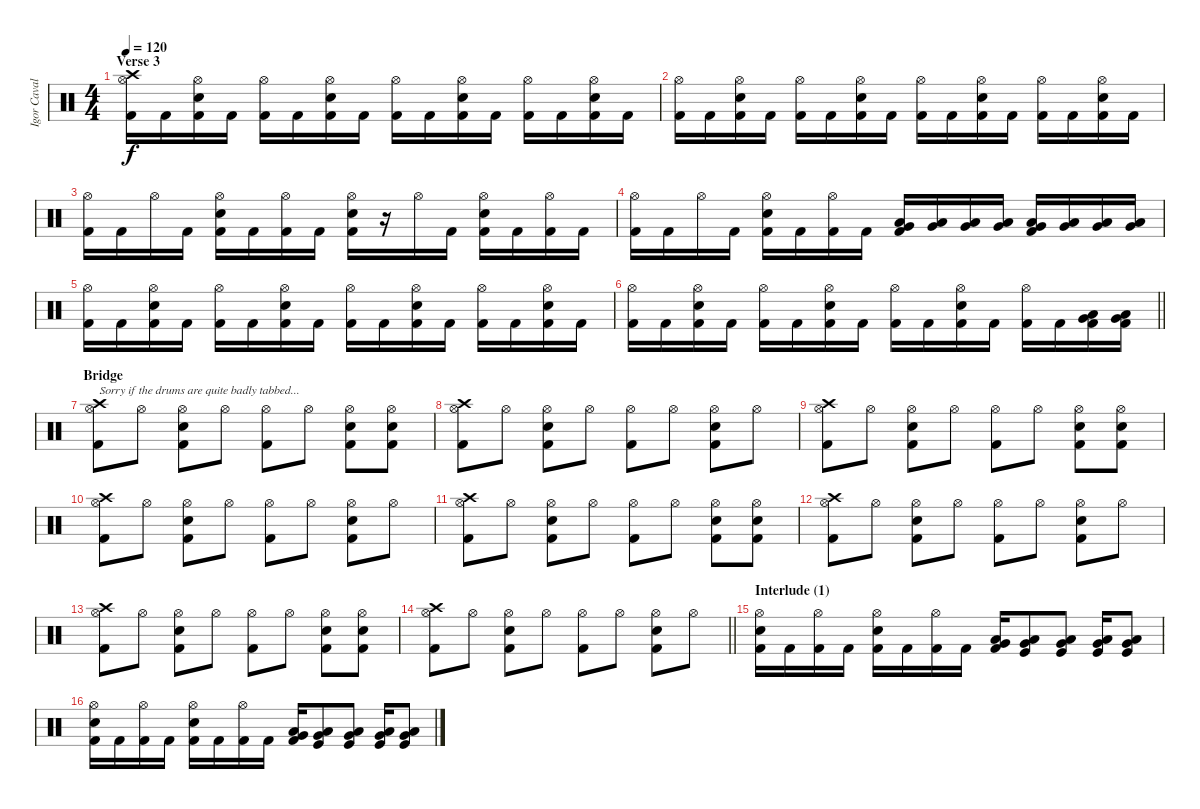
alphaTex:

\track ("Igor Cavalera" "Igor Caval") {instrument percussion}
\staff {score}
\articulation defaults
\ts (4 4)
\section ("" "Verse 3")
\tempo 120
\clef neutral
\ks c
("Crash high (hit)" "Hi-Hat (open)" "Kick (hit) 2").16{dy f} "Kick (hit) 2".16 ("Hi-Hat (open)" "Electric Snare (hit)" "Kick (hit) 2").16 "Kick (hit) 2".16 ("Hi-Hat (open)" "Kick (hit) 2").16 "Kick (hit) 2".16 ("Hi-Hat (open)" "Electric Snare (hit)" "Kick (hit) 2").16 "Kick (hit) 2".16 ("Hi-Hat (open)" "Kick (hit) 2").16 "Kick (hit) 2".16 ("Hi-Hat (open)" "Electric Snare (hit)" "Kick (hit) 2").16 "Kick (hit) 2".16 ("Hi-Hat (open)" "Kick (hit) 2").16 "Kick (hit) 2".16 ("Hi-Hat (open)" "Electric Snare (hit)" "Kick (hit) 2").16 "Kick (hit) 2".16 |
("Hi-Hat (open)" "Kick (hit) 2").16 "Kick (hit) 2".16 ("Hi-Hat (open)" "Electric Snare (hit)" "Kick (hit) 2").16 "Kick (hit) 2".16 ("Hi-Hat (open)" "Kick (hit) 2").16 "Kick (hit) 2".16 ("Hi-Hat (open)" "Electric Snare (hit)" "Kick (hit) 2").16 "Kick (hit) 2".16 ("Hi-Hat (open)" "Kick (hit) 2").16 "Kick (hit) 2".16 ("Hi-Hat (open)" "Electric Snare (hit)" "Kick (hit) 2").16 "Kick (hit) 2".16 ("Hi-Hat (open)" "Kick (hit) 2").16 "Kick (hit) 2".16 ("Hi-Hat (open)" "Electric Snare (hit)" "Kick (hit) 2").16 "Kick (hit) 2".16 |
("Hi-Hat (open)" "Kick (hit) 2").16 "Kick (hit) 2".16 "Hi-Hat (open)".16 "Kick (hit) 2".16 ("Hi-Hat (open)" "Electric Snare (hit)" "Kick (hit) 2").16 "Kick (hit) 2".16 ("Hi-Hat (open)" "Kick (hit) 2").16 "Kick (hit) 2".16 ("Hi-Hat (open)" "Electric Snare (hit)" "Kick (hit) 2").16 r.16 "Hi-Hat (open)".16 "Kick (hit) 2".16 ("Hi-Hat (open)" "Electric Snare (hit)" "Kick (hit) 2").16 "Kick (hit) 2".16 ("Hi-Hat (open)" "Kick (hit) 2").16 "Kick (hit) 2".16 |
("Hi-Hat (open)" "Kick (hit) 2").16 "Kick (hit) 2".16 "Hi-Hat (open)".16 "Kick (hit) 2".16 ("Hi-Hat (open)" "Electric Snare (hit)" "Kick (hit) 2").16 "Kick (hit) 2".16 ("Hi-Hat (open)" "Kick (hit) 2").16 "Kick (hit) 2".16 ("Very Low Tom (hit)" "Low Tom (hit)" "Kick (hit) 2").16 ("Very Low Tom (hit)" "Low Tom (hit)").16 ("Very Low Tom (hit)" "Low Tom (hit)").16 ("Very Low Tom (hit)" "Low Tom (hit)").16 ("Very Low Tom (hit)" "Low Tom (hit)" "Kick (hit) 2").16 ("Very Low Tom (hit)" "Low Tom (hit)").16 ("Very Low Tom (hit)" "Low Tom (hit)").16 ("Very Low Tom (hit)" "Low Tom (hit)").16 |
("Hi-Hat (open)" "Kick (hit) 2").16 "Kick (hit) 2".16 ("Hi-Hat (open)" "Electric Snare (hit)" "Kick (hit) 2").16 "Kick (hit) 2".16 ("Hi-Hat (open)" "Kick (hit) 2").16 "Kick (hit) 2".16 ("Hi-Hat (open)" "Electric Snare (hit)" "Kick (hit) 2").16 "Kick (hit) 2".16 ("Hi-Hat (open)" "Kick (hit) 2").16 "Kick (hit) 2".16 ("Hi-Hat (open)" "Electric Snare (hit)" "Kick (hit) 2").16 "Kick (hit) 2".16 ("Hi-Hat (open)" "Kick (hit) 2").16 "Kick (hit) 2".16 ("Hi-Hat (open)" "Electric Snare (hit)" "Kick (hit) 2").16 "Kick (hit) 2".16 |
\barLineRight lightlight
("Hi-Hat (open)" "Kick (hit) 2").16 "Kick (hit) 2".16 ("Hi-Hat (open)" "Electric Snare (hit)" "Kick (hit) 2").16 "Kick (hit) 2".16 ("Hi-Hat (open)" "Kick (hit) 2").16 "Kick (hit) 2".16 ("Hi-Hat (open)" "Electric Snare (hit)" "Kick (hit) 2").16 "Kick (hit) 2".16 ("Hi-Hat (open)" "Kick (hit) 2").16 "Kick (hit) 2".16 ("Hi-Hat (open)" "Electric Snare (hit)" "Kick (hit) 2").16 "Kick (hit) 2".16 ("Hi-Hat (open)" "Kick (hit) 2").16 "Kick (hit) 2".16 ("Very Low Tom (hit)" "Low Tom (hit)" "Kick (hit) 2").16 ("Very Low Tom (hit)" "Low Tom (hit)" "Kick (hit) 2").16 |
\section ("" "Bridge")
("Crash high (hit)" "Hi-Hat (open)" "Kick (hit) 2").8{txt "Sorry if the drums are quite badly tabbed..."} "Hi-Hat (open)".8 ("Hi-Hat (open)" "Electric Snare (hit)" "Kick (hit) 2").8 "Hi-Hat (open)".8 ("Hi-Hat (open)" "Kick (hit) 2").8 "Hi-Hat (open)".8 ("Hi-Hat (open)" "Electric Snare (hit)" "Kick (hit) 2").8 ("Hi-Hat (open)" "Electric Snare (hit)" "Kick (hit) 2").8 |
("Crash high (hit)" "Hi-Hat (open)" "Kick (hit) 2").8 "Hi-Hat (open)".8 ("Hi-Hat (open)" "Electric Snare (hit)" "Kick (hit) 2").8 "Hi-Hat (open)".8 ("Hi-Hat (open)" "Kick (hit) 2").8 "Hi-Hat (open)".8 ("Hi-Hat (open)" "Electric Snare (hit)" "Kick (hit) 2").8 "Hi-Hat (open)".8 |
("Crash high (hit)" "Hi-Hat (open)" "Kick (hit) 2").8 "Hi-Hat (open)".8 ("Hi-Hat (open)" "Electric Snare (hit)" "Kick (hit) 2").8 "Hi-Hat (open)".8 ("Hi-Hat (open)" "Kick (hit) 2").8 "Hi-Hat (open)".8 ("Hi-Hat (open)" "Electric Snare (hit)" "Kick (hit) 2").8 ("Hi-Hat (open)" "Electric Snare (hit)" "Kick (hit) 2").8 |
("Crash high (hit)" "Hi-Hat (open)" "Kick (hit) 2").8 "Hi-Hat (open)".8 ("Hi-Hat (open)" "Electric Snare (hit)" "Kick (hit) 2").8 "Hi-Hat (open)".8 ("Hi-Hat (open)" "Kick (hit) 2").8 "Hi-Hat (open)".8 ("Hi-Hat (open)" "Electric Snare (hit)" "Kick (hit) 2").8 "Hi-Hat (open)".8 |
("Crash high (hit)" "Hi-Hat (open)" "Kick (hit) 2").8 "Hi-Hat (open)".8 ("Hi-Hat (open)" "Electric Snare (hit)" "Kick (hit) 2").8 "Hi-Hat (open)".8 ("Hi-Hat (open)" "Kick (hit) 2").8 "Hi-Hat (open)".8 ("Hi-Hat (open)" "Electric Snare (hit)" "Kick (hit) 2").8 ("Hi-Hat (open)" "Electric Snare (hit)" "Kick (hit) 2").8 |
("Crash high (hit)" "Hi-Hat (open)" "Kick (hit) 2").8 "Hi-Hat (open)".8 ("Hi-Hat (open)" "Electric Snare (hit)" "Kick (hit) 2").8 "Hi-Hat (open)".8 ("Hi-Hat (open)" "Kick (hit) 2").8 "Hi-Hat (open)".8 ("Hi-Hat (open)" "Electric Snare (hit)" "Kick (hit) 2").8 "Hi-Hat (open)".8 |
("Crash high (hit)" "Hi-Hat (open)" "Kick (hit) 2").8 "Hi-Hat (open)".8 ("Hi-Hat (open)" "Electric Snare (hit)" "Kick (hit) 2").8 "Hi-Hat (open)".8 ("Hi-Hat (open)" "Kick (hit) 2").8 "Hi-Hat (open)".8 ("Hi-Hat (open)" "Electric Snare (hit)" "Kick (hit) 2").8 ("Hi-Hat (open)" "Electric Snare (hit)" "Kick (hit) 2").8 |
\barLineRight lightlight
("Crash high (hit)" "Hi-Hat (open)" "Kick (hit) 2").8 "Hi-Hat (open)".8 ("Hi-Hat (open)" "Electric Snare (hit)" "Kick (hit) 2").8 "Hi-Hat (open)".8 ("Hi-Hat (open)" "Kick (hit) 2").8 "Hi-Hat (open)".8 ("Hi-Hat (open)" "Electric Snare (hit)" "Kick (hit) 2").8 "Hi-Hat (open)".8 |
\section ("" "Interlude (1)")
("Hi-Hat (open)" "Electric Snare (hit)" "Kick (hit) 2").16 "Kick (hit) 2".16 ("Hi-Hat (open)" "Kick (hit) 2").16 "Kick (hit) 2".16 ("Hi-Hat (open)" "Electric Snare (hit)" "Kick (hit) 2").16 "Kick (hit) 2".16 ("Hi-Hat (open)" "Kick (hit) 2").16 "Kick (hit) 2".16 ("Low Floor Tom (hit)" "Very Low Tom (hit)" "Kick (hit) 2").16 ("Low Floor Tom (hit)" "Very Low Tom (hit)" "Kick (hit)").8 ("Low Floor Tom (hit)" "Very Low Tom (hit)" "Kick (hit)").8 ("Low Floor Tom (hit)" "Very Low Tom (hit)" "Kick (hit)").16 ("Low Floor Tom (hit)" "Very Low Tom (hit)" "Kick (hit)").8 |
("Hi-Hat (open)" "Electric Snare (hit)" "Kick (hit) 2").16 "Kick (hit) 2".16 ("Hi-Hat (open)" "Kick (hit) 2").16 "Kick (hit) 2".16 ("Hi-Hat (open)" "Electric Snare (hit)" "Kick (hit) 2").16 "Kick (hit) 2".16 ("Hi-Hat (open)" "Kick (hit) 2").16 "Kick (hit) 2".16 ("Low Floor Tom (hit)" "Very Low Tom (hit)" "Kick (hit) 2").16 ("Low Floor Tom (hit)" "Very Low Tom (hit)" "Kick (hit)").8 ("Low Floor Tom (hit)" "Very Low Tom (hit)" "Kick (hit)").8 ("Low Floor Tom (hit)" "Very Low Tom (hit)" "Kick (hit)").16 ("Low Floor Tom (hit)" "Very Low Tom (hit)" "Kick (hit)").8
